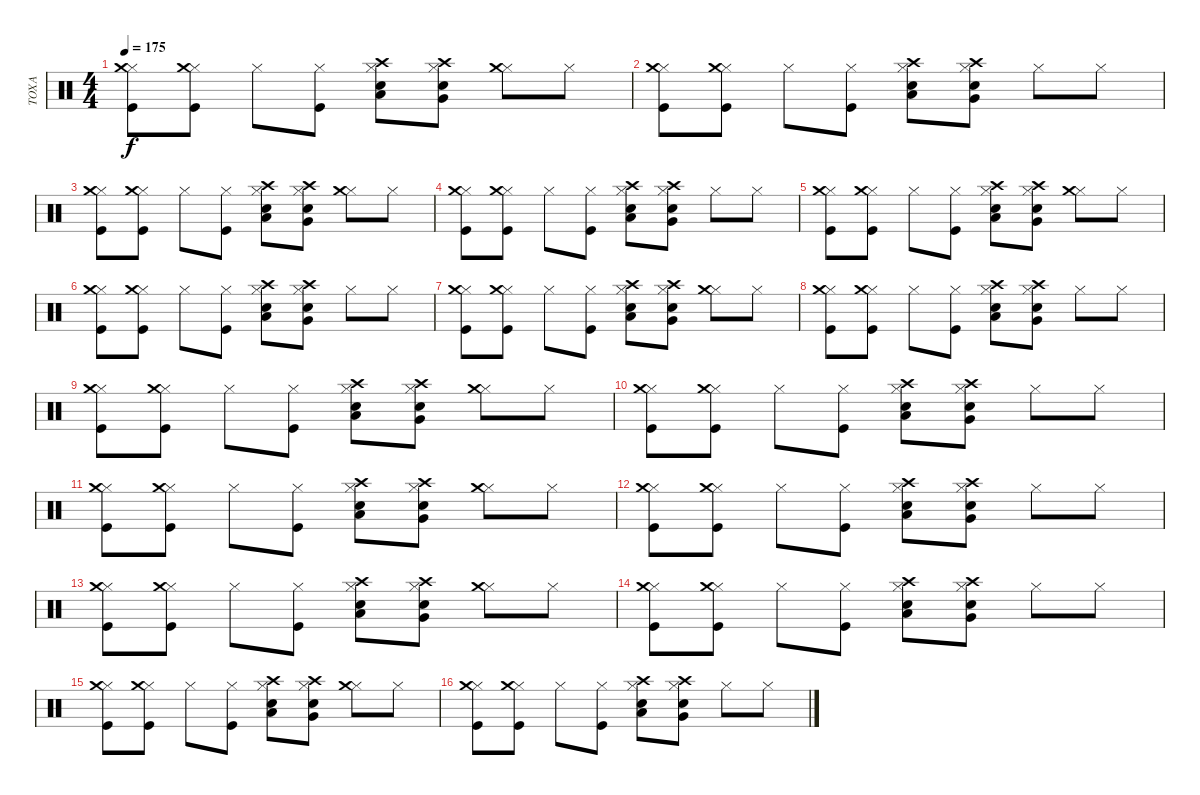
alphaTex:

\track ("TOXA" "TOXA") {instrument percussion}
\staff {score}
\articulation defaults
\ts (4 4)
\tempo 175
\clef neutral
\ks c
("Hi-Hat (closed)" "Crash medium (hit)" "Kick (hit)").8{dy f} ("Hi-Hat (closed)" "Crash medium (hit)" "Kick (hit)").8 "Hi-Hat (closed)".8 ("Hi-Hat (closed)" "Kick (hit)").8 ("Hi-Hat (closed)" "Crash high (hit)" "Snare (hit) 2" "Low Floor Tom (hit)").8 ("Hi-Hat (closed)" "Crash high (hit)" "Electric Snare (hit)" "Very Low Tom (hit)").8 ("Hi-Hat (closed)" "Crash medium (hit)").8 "Hi-Hat (closed)".8 |
("Hi-Hat (closed)" "Crash medium (hit)" "Kick (hit)").8 ("Hi-Hat (closed)" "Crash medium (hit)" "Kick (hit)").8 "Hi-Hat (closed)".8 ("Hi-Hat (closed)" "Kick (hit)").8 ("Hi-Hat (closed)" "Crash high (hit)" "Snare (hit) 2" "Low Floor Tom (hit)").8 ("Hi-Hat (closed)" "Crash high (hit)" "Electric Snare (hit)" "Very Low Tom (hit)").8 "Hi-Hat (closed)".8 "Hi-Hat (closed)".8 |
("Hi-Hat (closed)" "Crash medium (hit)" "Kick (hit)").8 ("Hi-Hat (closed)" "Crash medium (hit)" "Kick (hit)").8 "Hi-Hat (closed)".8 ("Hi-Hat (closed)" "Kick (hit)").8 ("Hi-Hat (closed)" "Crash high (hit)" "Snare (hit) 2" "Low Floor Tom (hit)").8 ("Hi-Hat (closed)" "Crash high (hit)" "Electric Snare (hit)" "Very Low Tom (hit)").8 ("Hi-Hat (closed)" "Crash medium (hit)").8 "Hi-Hat (closed)".8 |
("Hi-Hat (closed)" "Crash medium (hit)" "Kick (hit)").8 ("Hi-Hat (closed)" "Crash medium (hit)" "Kick (hit)").8 "Hi-Hat (closed)".8 ("Hi-Hat (closed)" "Kick (hit)").8 ("Hi-Hat (closed)" "Crash high (hit)" "Snare (hit) 2" "Low Floor Tom (hit)").8 ("Hi-Hat (closed)" "Crash high (hit)" "Electric Snare (hit)" "Very Low Tom (hit)").8 "Hi-Hat (closed)".8 "Hi-Hat (closed)".8 |
("Hi-Hat (closed)" "Crash medium (hit)" "Kick (hit)").8 ("Hi-Hat (closed)" "Crash medium (hit)" "Kick (hit)").8 "Hi-Hat (closed)".8 ("Hi-Hat (closed)" "Kick (hit)").8 ("Hi-Hat (closed)" "Crash high (hit)" "Snare (hit) 2" "Low Floor Tom (hit)").8 ("Hi-Hat (closed)" "Crash high (hit)" "Electric Snare (hit)" "Very Low Tom (hit)").8 ("Hi-Hat (closed)" "Crash medium (hit)").8 "Hi-Hat (closed)".8 |
("Hi-Hat (closed)" "Crash medium (hit)" "Kick (hit)").8 ("Hi-Hat (closed)" "Crash medium (hit)" "Kick (hit)").8 "Hi-Hat (closed)".8 ("Hi-Hat (closed)" "Kick (hit)").8 ("Hi-Hat (closed)" "Crash high (hit)" "Snare (hit) 2" "Low Floor Tom (hit)").8 ("Hi-Hat (closed)" "Crash high (hit)" "Electric Snare (hit)" "Very Low Tom (hit)").8 "Hi-Hat (closed)".8 "Hi-Hat (closed)".8 |
("Hi-Hat (closed)" "Crash medium (hit)" "Kick (hit)").8 ("Hi-Hat (closed)" "Crash medium (hit)" "Kick (hit)").8 "Hi-Hat (closed)".8 ("Hi-Hat (closed)" "Kick (hit)").8 ("Hi-Hat (closed)" "Crash high (hit)" "Snare (hit) 2" "Low Floor Tom (hit)").8 ("Hi-Hat (closed)" "Crash high (hit)" "Electric Snare (hit)" "Very Low Tom (hit)").8 ("Hi-Hat (closed)" "Crash medium (hit)").8 "Hi-Hat (closed)".8 |
("Hi-Hat (closed)" "Crash medium (hit)" "Kick (hit)").8 ("Hi-Hat (closed)" "Crash medium (hit)" "Kick (hit)").8 "Hi-Hat (closed)".8 ("Hi-Hat (closed)" "Kick (hit)").8 ("Hi-Hat (closed)" "Crash high (hit)" "Snare (hit) 2" "Low Floor Tom (hit)").8 ("Hi-Hat (closed)" "Crash high (hit)" "Electric Snare (hit)" "Very Low Tom (hit)").8 "Hi-Hat (closed)".8 "Hi-Hat (closed)".8 |
("Hi-Hat (closed)" "Crash medium (hit)" "Kick (hit)").8 ("Hi-Hat (closed)" "Crash medium (hit)" "Kick (hit)").8 "Hi-Hat (closed)".8 ("Hi-Hat (closed)" "Kick (hit)").8 ("Hi-Hat (closed)" "Crash high (hit)" "Snare (hit) 2" "Low Floor Tom (hit)").8 ("Hi-Hat (closed)" "Crash high (hit)" "Electric Snare (hit)" "Very Low Tom (hit)").8 ("Hi-Hat (closed)" "Crash medium (hit)").8 "Hi-Hat (closed)".8 |
("Hi-Hat (closed)" "Crash medium (hit)" "Kick (hit)").8 ("Hi-Hat (closed)" "Crash medium (hit)" "Kick (hit)").8 "Hi-Hat (closed)".8 ("Hi-Hat (closed)" "Kick (hit)").8 ("Hi-Hat (closed)" "Crash high (hit)" "Snare (hit) 2" "Low Floor Tom (hit)").8 ("Hi-Hat (closed)" "Crash high (hit)" "Electric Snare (hit)" "Very Low Tom (hit)").8 "Hi-Hat (closed)".8 "Hi-Hat (closed)".8 |
("Hi-Hat (closed)" "Crash medium (hit)" "Kick (hit)").8 ("Hi-Hat (closed)" "Crash medium (hit)" "Kick (hit)").8 "Hi-Hat (closed)".8 ("Hi-Hat (closed)" "Kick (hit)").8 ("Hi-Hat (closed)" "Crash high (hit)" "Snare (hit) 2" "Low Floor Tom (hit)").8 ("Hi-Hat (closed)" "Crash high (hit)" "Electric Snare (hit)" "Very Low Tom (hit)").8 ("Hi-Hat (closed)" "Crash medium (hit)").8 "Hi-Hat (closed)".8 |
("Hi-Hat (closed)" "Crash medium (hit)" "Kick (hit)").8 ("Hi-Hat (closed)" "Crash medium (hit)" "Kick (hit)").8 "Hi-Hat (closed)".8 ("Hi-Hat (closed)" "Kick (hit)").8 ("Hi-Hat (closed)" "Crash high (hit)" "Snare (hit) 2" "Low Floor Tom (hit)").8 ("Hi-Hat (closed)" "Crash high (hit)" "Electric Snare (hit)" "Very Low Tom (hit)").8 "Hi-Hat (closed)".8 "Hi-Hat (closed)".8 |
("Hi-Hat (closed)" "Crash medium (hit)" "Kick (hit)").8 ("Hi-Hat (closed)" "Crash medium (hit)" "Kick (hit)").8 "Hi-Hat (closed)".8 ("Hi-Hat (closed)" "Kick (hit)").8 ("Hi-Hat (closed)" "Crash high (hit)" "Snare (hit) 2" "Low Floor Tom (hit)").8 ("Hi-Hat (closed)" "Crash high (hit)" "Electric Snare (hit)" "Very Low Tom (hit)").8 ("Hi-Hat (closed)" "Crash medium (hit)").8 "Hi-Hat (closed)".8 |
("Hi-Hat (closed)" "Crash medium (hit)" "Kick (hit)").8 ("Hi-Hat (closed)" "Crash medium (hit)" "Kick (hit)").8 "Hi-Hat (closed)".8 ("Hi-Hat (closed)" "Kick (hit)").8 ("Hi-Hat (closed)" "Crash high (hit)" "Snare (hit) 2" "Low Floor Tom (hit)").8 ("Hi-Hat (closed)" "Crash high (hit)" "Electric Snare (hit)" "Very Low Tom (hit)").8 "Hi-Hat (closed)".8 "Hi-Hat (closed)".8 |
("Hi-Hat (closed)" "Crash medium (hit)" "Kick (hit)").8 ("Hi-Hat (closed)" "Crash medium (hit)" "Kick (hit)").8 "Hi-Hat (closed)".8 ("Hi-Hat (closed)" "Kick (hit)").8 ("Hi-Hat (closed)" "Crash high (hit)" "Snare (hit) 2" "Low Floor Tom (hit)").8 ("Hi-Hat (closed)" "Crash high (hit)" "Electric Snare (hit)" "Very Low Tom (hit)").8 ("Hi-Hat (closed)" "Crash medium (hit)").8 "Hi-Hat (closed)".8 |
("Hi-Hat (closed)" "Crash medium (hit)" "Kick (hit)").8 ("Hi-Hat (closed)" "Crash medium (hit)" "Kick (hit)").8 "Hi-Hat (closed)".8 ("Hi-Hat (closed)" "Kick (hit)").8 ("Hi-Hat (closed)" "Crash high (hit)" "Snare (hit) 2" "Low Floor Tom (hit)").8 ("Hi-Hat (closed)" "Crash high (hit)" "Electric Snare (hit)" "Very Low Tom (hit)").8 "Hi-Hat (closed)".8 "Hi-Hat (closed)".8
